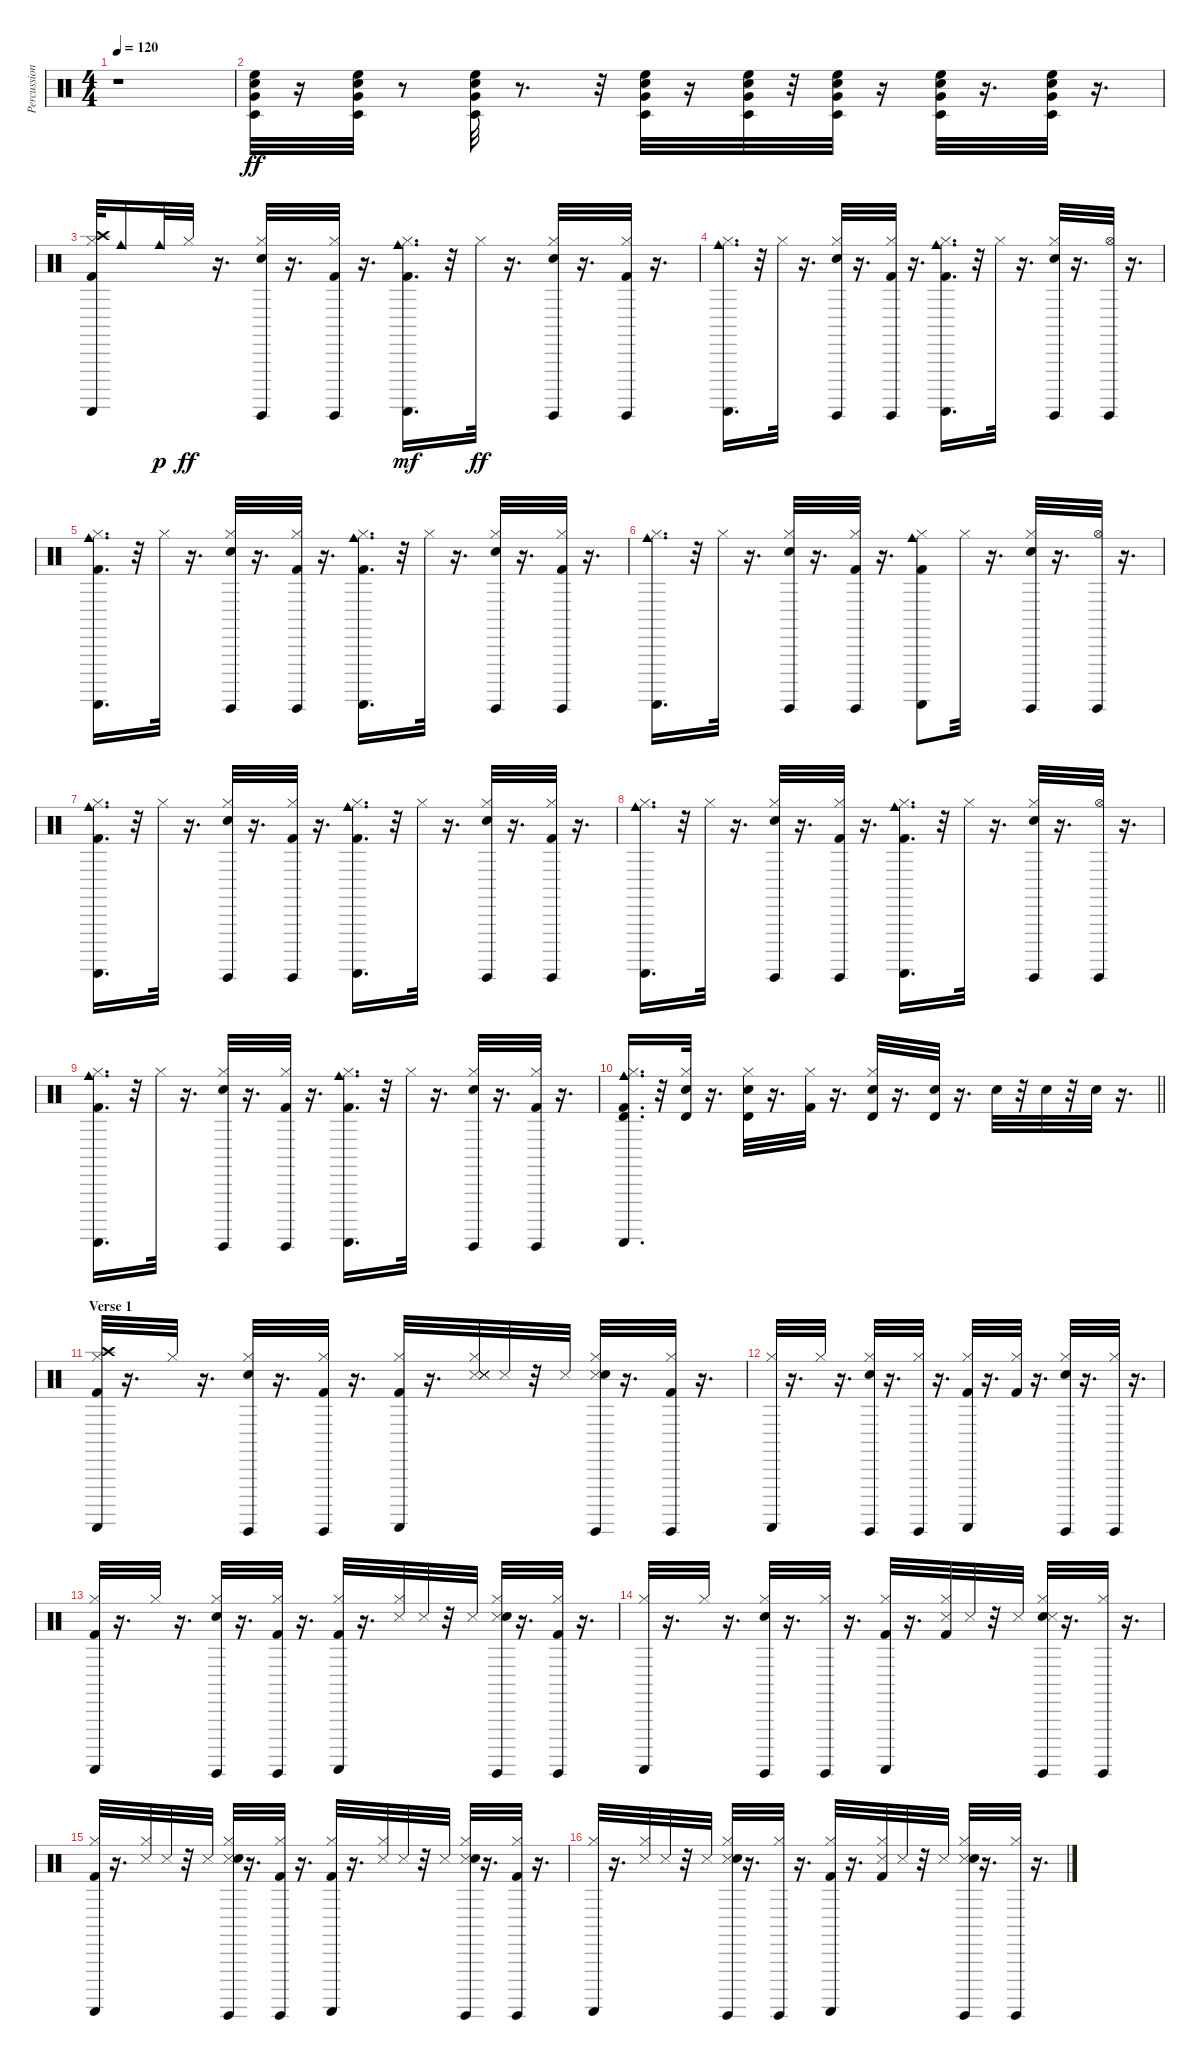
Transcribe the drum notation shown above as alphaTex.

\track ("Percussion" "Percussion") {instrument percussion}
\staff {score}
\articulation defaults
\ts (4 4)
\tempo 120
\clef neutral
\ks c
r.1{dy ff} |
("Very Low Tom (hit)" "Timbale low (hit)" "Electric Snare (hit)" "High Floor Tom (hit)").32 r.16 ("Very Low Tom (hit)" "Timbale low (hit)" "Electric Snare (hit)" "High Floor Tom (hit)").32 r.8 ("Very Low Tom (hit)" "Timbale low (hit)" "High Floor Tom (hit)" "Electric Snare (hit)").32 r.8{d} r.32 ("Very Low Tom (hit)" "Electric Snare (hit)" "Timbale low (hit)" "High Floor Tom (hit)").32 r.16 ("Timbale low (hit)" "Electric Snare (hit)" "High Floor Tom (hit)" "Very Low Tom (hit)").32 r.32 ("High Floor Tom (hit)" "Timbale low (hit)" "Electric Snare (hit)" "Very Low Tom (hit)").32 r.16 ("Very Low Tom (hit)" "High Floor Tom (hit)" "Electric Snare (hit)" "Timbale low (hit)").32 r.16{d} ("Very Low Tom (hit)" "Electric Snare (hit)" "High Floor Tom (hit)" "Timbale low (hit)").32 r.16{d} |
("Kick (hit) 2" "Hi-Hat (closed)" "Crash high (hit)" "Guiro (scrap-return)").32 "Cowbell medium (hit)".16 "Cowbell medium (hit)".32{dy p} "Hi-Hat (closed)".32{dy ff} r.16{d} ("Guiro (hit)" "Snare (hit) 2" "Hi-Hat (closed)").32 r.16{d} ("Hi-Hat (closed)" "Kick (hit) 2" "Guiro (hit)").32 r.16{d} ("Guiro (scrap-return)" "Kick (hit) 2" "Hi-Hat (closed)" "Cowbell medium (hit)").16{d dy mf} r.32 "Hi-Hat (closed)".32{dy ff} r.16{d} ("Hi-Hat (closed)" "Guiro (hit)" "Snare (hit) 2").32 r.16{d} ("Kick (hit) 2" "Guiro (hit)" "Hi-Hat (closed)").32 r.16{d} |
("Cowbell medium (hit)" "Guiro (scrap-return)" "Hi-Hat (closed)").16{d} r.32 "Hi-Hat (closed)".32 r.16{d} ("Guiro (hit)" "Snare (hit) 2" "Hi-Hat (closed)").32 r.16{d} ("Hi-Hat (closed)" "Kick (hit) 2" "Guiro (hit)").32 r.16{d} ("Guiro (scrap-return)" "Kick (hit) 2" "Hi-Hat (closed)" "Cowbell medium (hit)").16{d} r.32 "Hi-Hat (closed)".32 r.16{d} ("Guiro (hit)" "Snare (hit) 2" "Hi-Hat (closed)").32 r.16{d} ("Hi-Hat (open)" "Guiro (hit)").32 r.16{d} |
("Guiro (scrap-return)" "Kick (hit) 2" "Hi-Hat (closed)" "Cowbell medium (hit)").16{d} r.32 "Hi-Hat (closed)".32 r.16{d} ("Guiro (hit)" "Snare (hit) 2" "Hi-Hat (closed)").32 r.16{d} ("Hi-Hat (closed)" "Kick (hit) 2" "Guiro (hit)").32 r.16{d} ("Guiro (scrap-return)" "Kick (hit) 2" "Hi-Hat (closed)" "Cowbell medium (hit)").16{d} r.32 "Hi-Hat (closed)".32 r.16{d} ("Guiro (hit)" "Snare (hit) 2" "Hi-Hat (closed)").32 r.16{d} ("Guiro (hit)" "Hi-Hat (closed)" "Kick (hit) 2").32 r.16{d} |
("Guiro (scrap-return)" "Hi-Hat (closed)" "Cowbell medium (hit)").16{d} r.32 "Hi-Hat (closed)".32 r.16{d} ("Guiro (hit)" "Snare (hit) 2" "Hi-Hat (closed)").32 r.16{d} ("Hi-Hat (closed)" "Kick (hit) 2" "Guiro (hit)").32 r.16{d} ("Cowbell medium (hit)" "Guiro (scrap-return)" "Kick (hit) 2" "Hi-Hat (closed)").8 "Hi-Hat (closed)".32 r.16{d} ("Guiro (hit)" "Snare (hit) 2" "Hi-Hat (closed)").32 r.16{d} ("Hi-Hat (open)" "Guiro (hit)").32 r.16{d} |
("Guiro (scrap-return)" "Kick (hit) 2" "Hi-Hat (closed)" "Cowbell medium (hit)").16{d} r.32 "Hi-Hat (closed)".32 r.16{d} ("Guiro (hit)" "Snare (hit) 2" "Hi-Hat (closed)").32 r.16{d} ("Hi-Hat (closed)" "Kick (hit) 2" "Guiro (hit)").32 r.16{d} ("Cowbell medium (hit)" "Guiro (scrap-return)" "Kick (hit) 2" "Hi-Hat (closed)").16{d} r.32 "Hi-Hat (closed)".32 r.16{d} ("Guiro (hit)" "Snare (hit) 2" "Hi-Hat (closed)").32 r.16{d} ("Guiro (hit)" "Hi-Hat (closed)" "Kick (hit) 2").32 r.16{d} |
("Cowbell medium (hit)" "Guiro (scrap-return)" "Hi-Hat (closed)").16{d} r.32 "Hi-Hat (closed)".32 r.16{d} ("Guiro (hit)" "Snare (hit) 2" "Hi-Hat (closed)").32 r.16{d} ("Hi-Hat (closed)" "Kick (hit) 2" "Guiro (hit)").32 r.16{d} ("Guiro (scrap-return)" "Kick (hit) 2" "Hi-Hat (closed)" "Cowbell medium (hit)").16{d} r.32 "Hi-Hat (closed)".32 r.16{d} ("Guiro (hit)" "Snare (hit) 2" "Hi-Hat (closed)").32 r.16{d} ("Hi-Hat (open)" "Guiro (hit)").32 r.16{d} |
("Guiro (scrap-return)" "Kick (hit) 2" "Hi-Hat (closed)" "Cowbell medium (hit)").16{d} r.32 "Hi-Hat (closed)".32 r.16{d} ("Guiro (hit)" "Snare (hit) 2" "Hi-Hat (closed)").32 r.16{d} ("Hi-Hat (closed)" "Kick (hit) 2" "Guiro (hit)").32 r.16{d} ("Guiro (scrap-return)" "Kick (hit) 2" "Hi-Hat (closed)" "Cowbell medium (hit)").16{d} r.32 "Hi-Hat (closed)".32 r.16{d} ("Guiro (hit)" "Snare (hit) 2" "Hi-Hat (closed)").32 r.16{d} ("Guiro (hit)" "Hi-Hat (closed)" "Kick (hit) 2").32 r.16{d} |
\barLineRight lightlight
("Hi-Hat (closed)" "Guiro (scrap-return)" "Kick (hit) 2" "Timbale high (hit)" "Cowbell medium (hit)").16{d} r.32 ("Hi-Hat (closed)" "Electric Snare (hit)" "Timbale high (hit)").32 r.16{d} ("Hi-Hat (closed)" "Electric Snare (hit)" "Timbale high (hit)").32 r.16{d} ("Hi-Hat (closed)" "Kick (hit) 2").32 r.16{d} ("Hi-Hat (closed)" "Timbale high (hit)" "Electric Snare (hit)").32 r.16{d} ("Electric Snare (hit)" "Timbale high (hit)").32 r.16{d} "Electric Snare (hit)".32 r.32 "Electric Snare (hit)".32 r.32 "Electric Snare (hit)".32 r.16{d} |
\section ("" "Verse 1")
("Guiro (scrap-return)" "Hi-Hat (closed)" "Crash high (hit)" "Kick (hit) 2").32 r.16{d} "Hi-Hat (closed)".32 r.16{d} ("Guiro (hit)" "Hi-Hat (closed)" "Snare (hit) 2").32 r.16{d} ("Guiro (hit)" "Hi-Hat (closed)" "Kick (hit) 2").32 r.16{d} ("Guiro (scrap-return)" "Hi-Hat (closed)" "Kick (hit) 2").32 r.16{d} ("Hi-Hat (closed)" "Snare (side stick) 3" "Snare (side stick) 3" "Snare (side stick) 3" "Snare (side stick) 3").32 "Snare (side stick) 3".32 r.32 "Snare (side stick) 3".32 ("Snare (side stick) 3" "Guiro (hit)" "Hi-Hat (closed)" "Snare (hit) 2").32 r.16{d} ("Guiro (hit)" "Hi-Hat (closed)" "Kick (hit) 2").32 r.16{d} |
("Guiro (scrap-return)" "Hi-Hat (closed)").32 r.16{d} "Hi-Hat (closed)".32 r.16{d} ("Snare (hit) 2" "Guiro (hit)" "Hi-Hat (closed)").32 r.16{d} ("Guiro (hit)" "Hi-Hat (closed)").32 r.16{d} ("Guiro (scrap-return)" "Hi-Hat (closed)" "Kick (hit) 2").32 r.16{d} ("Hi-Hat (closed)" "Kick (hit) 2").32 r.16{d} ("Guiro (hit)" "Hi-Hat (closed)" "Snare (hit) 2").32 r.16{d} ("Guiro (hit)" "Hi-Hat (closed)").32 r.16{d} |
("Guiro (scrap-return)" "Hi-Hat (closed)" "Kick (hit) 2").32 r.16{d} "Hi-Hat (closed)".32 r.16{d} ("Guiro (hit)" "Hi-Hat (closed)" "Snare (hit) 2").32 r.16{d} ("Guiro (hit)" "Hi-Hat (closed)" "Kick (hit) 2").32 r.16{d} ("Guiro (scrap-return)" "Hi-Hat (closed)" "Kick (hit) 2").32 r.16{d} ("Hi-Hat (closed)" "Snare (side stick) 3").32 "Snare (side stick) 3".32 r.32 "Snare (side stick) 3".32 ("Guiro (hit)" "Snare (side stick) 3" "Hi-Hat (closed)" "Snare (hit) 2").32 r.16{d} ("Guiro (hit)" "Hi-Hat (closed)" "Kick (hit) 2").32 r.16{d} |
("Guiro (scrap-return)" "Hi-Hat (closed)").32 r.16{d} "Hi-Hat (closed)".32 r.16{d} ("Guiro (hit)" "Hi-Hat (closed)" "Snare (hit) 2").32 r.16{d} ("Guiro (hit)" "Hi-Hat (closed)").32 r.16{d} ("Guiro (scrap-return)" "Hi-Hat (closed)" "Kick (hit) 2").32 r.16{d} ("Hi-Hat (closed)" "Kick (hit) 2" "Snare (side stick) 3").32 "Snare (side stick) 3".32 r.32 "Snare (side stick) 3".32 ("Snare (hit) 2" "Guiro (hit)" "Hi-Hat (closed)" "Snare (side stick) 3").32 r.16{d} ("Guiro (hit)" "Hi-Hat (closed)").32 r.16{d} |
("Guiro (scrap-return)" "Hi-Hat (closed)" "Kick (hit) 2").32 r.16{d} ("Hi-Hat (closed)" "Snare (side stick) 3").32 "Snare (side stick) 3".32 r.32 "Snare (side stick) 3".32 ("Guiro (hit)" "Snare (side stick) 3" "Hi-Hat (closed)" "Snare (hit) 2").32 r.16{d} ("Guiro (hit)" "Hi-Hat (closed)" "Kick (hit) 2").32 r.16{d} ("Guiro (scrap-return)" "Hi-Hat (closed)" "Kick (hit) 2").32 r.16{d} ("Snare (side stick) 3" "Hi-Hat (closed)").32 "Snare (side stick) 3".32 r.32 "Snare (side stick) 3".32 ("Snare (side stick) 3" "Guiro (hit)" "Hi-Hat (closed)" "Snare (hit) 2").32 r.16{d} ("Guiro (hit)" "Hi-Hat (closed)" "Kick (hit) 2").32 r.16{d} |
("Guiro (scrap-return)" "Hi-Hat (closed)").32 r.16{d} ("Snare (side stick) 3" "Hi-Hat (closed)").32 "Snare (side stick) 3".32 r.32 "Snare (side stick) 3".32 ("Guiro (hit)" "Hi-Hat (closed)" "Snare (side stick) 3" "Snare (hit) 2").32 r.16{d} ("Guiro (hit)" "Hi-Hat (closed)").32 r.16{d} ("Kick (hit) 2" "Guiro (scrap-return)" "Hi-Hat (closed)").32 r.16{d} ("Snare (side stick) 3" "Hi-Hat (closed)" "Kick (hit) 2").32 "Snare (side stick) 3".32 r.32 "Snare (side stick) 3".32 ("Guiro (hit)" "Hi-Hat (closed)" "Snare (side stick) 3" "Snare (hit) 2").32 r.16{d} ("Guiro (hit)" "Hi-Hat (closed)").32 r.16{d}
